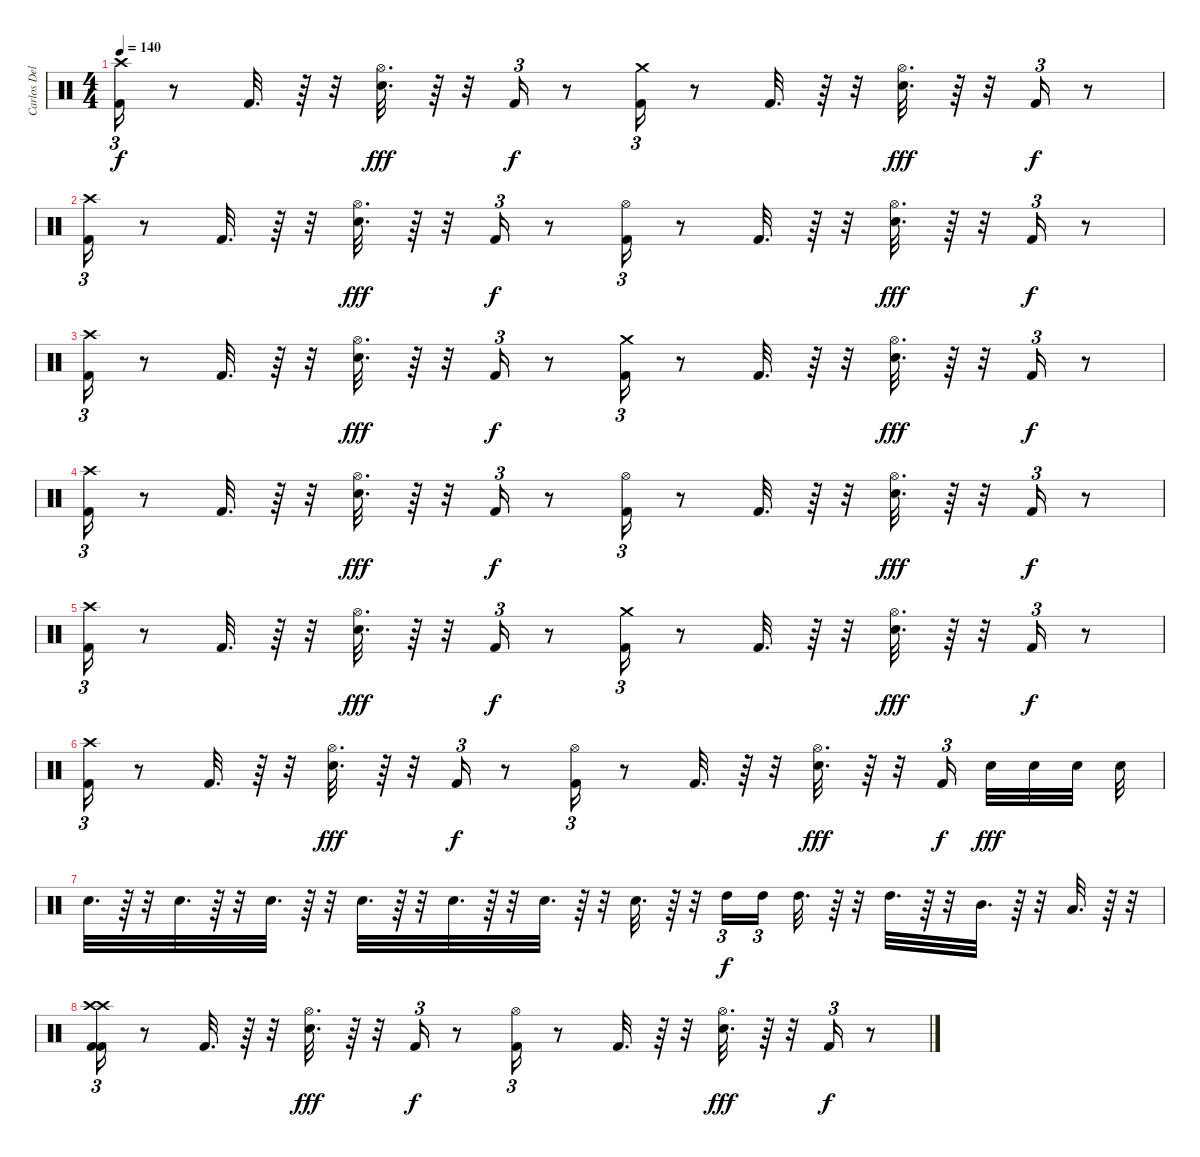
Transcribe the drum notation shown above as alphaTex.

\track ("Carlos Delgado" "Carlos Del") {instrument percussion}
\staff {score}
\articulation defaults
\ts (4 4)
\tempo 140
\clef neutral
\ks c
("Crash high (hit)" "Kick (hit) 2").16{tu (3 2) dy f} r.8 "Kick (hit) 2".32{d} r.64 r.32 ("Hi-Hat (open)" "Electric Snare (hit)").32{d dy fff} r.64 r.32 "Kick (hit) 2".16{tu (3 2) dy f} r.8 ("Kick (hit) 2" "Crash medium (hit)").16{tu (3 2)} r.8 "Kick (hit) 2".32{d} r.64 r.32 ("Hi-Hat (open)" "Electric Snare (hit)").32{d dy fff} r.64 r.32 "Kick (hit) 2".16{tu (3 2) dy f} r.8 |
("Kick (hit) 2" "Crash high (hit)").16{tu (3 2)} r.8 "Kick (hit) 2".32{d} r.64 r.32 ("Electric Snare (hit)" "Hi-Hat (open)").32{d dy fff} r.64 r.32 "Kick (hit) 2".16{tu (3 2) dy f} r.8 ("Kick (hit) 2" "Hi-Hat (open)").16{tu (3 2)} r.8 "Kick (hit) 2".32{d} r.64 r.32 ("Hi-Hat (open)" "Electric Snare (hit)").32{d dy fff} r.64 r.32 "Kick (hit) 2".16{tu (3 2) dy f} r.8 |
("Kick (hit) 2" "Crash high (hit)").16{tu (3 2)} r.8 "Kick (hit) 2".32{d} r.64 r.32 ("Electric Snare (hit)" "Hi-Hat (open)").32{d dy fff} r.64 r.32 "Kick (hit) 2".16{tu (3 2) dy f} r.8 ("Kick (hit) 2" "Crash medium (hit)").16{tu (3 2)} r.8 "Kick (hit) 2".32{d} r.64 r.32 ("Hi-Hat (open)" "Electric Snare (hit)").32{d dy fff} r.64 r.32 "Kick (hit) 2".16{tu (3 2) dy f} r.8 |
("Kick (hit) 2" "Crash high (hit)").16{tu (3 2)} r.8 "Kick (hit) 2".32{d} r.64 r.32 ("Electric Snare (hit)" "Hi-Hat (open)").32{d dy fff} r.64 r.32 "Kick (hit) 2".16{tu (3 2) dy f} r.8 ("Hi-Hat (open)" "Kick (hit) 2").16{tu (3 2)} r.8 "Kick (hit) 2".32{d} r.64 r.32 ("Hi-Hat (open)" "Electric Snare (hit)").32{d dy fff} r.64 r.32 "Kick (hit) 2".16{tu (3 2) dy f} r.8 |
("Crash high (hit)" "Kick (hit) 2").16{tu (3 2)} r.8 "Kick (hit) 2".32{d} r.64 r.32 ("Electric Snare (hit)" "Hi-Hat (open)").32{d dy fff} r.64 r.32 "Kick (hit) 2".16{tu (3 2) dy f} r.8 ("Crash medium (hit)" "Kick (hit) 2").16{tu (3 2)} r.8 "Kick (hit) 2".32{d} r.64 r.32 ("Hi-Hat (open)" "Electric Snare (hit)").32{d dy fff} r.64 r.32 "Kick (hit) 2".16{tu (3 2) dy f} r.8 |
("Crash high (hit)" "Kick (hit) 2").16{tu (3 2)} r.8 "Kick (hit) 2".32{d} r.64 r.32 ("Electric Snare (hit)" "Hi-Hat (open)").32{d dy fff} r.64 r.32 "Kick (hit) 2".16{tu (3 2) dy f} r.8 ("Hi-Hat (open)" "Kick (hit) 2").16{tu (3 2)} r.8 "Kick (hit) 2".32{d} r.64 r.32 ("Hi-Hat (open)" "Electric Snare (hit)").32{d dy fff} r.64 r.32 "Kick (hit) 2".16{tu (3 2) dy f beam splitsecondary} "Electric Snare (hit)".32{dy fff} "Electric Snare (hit)".32 "Electric Snare (hit)".32 "Electric Snare (hit)".32 |
"Electric Snare (hit)".32{d} r.64 r.32 "Electric Snare (hit)".32{d} r.64 r.32 "Electric Snare (hit)".32{d} r.64 r.32 "Electric Snare (hit)".32{d} r.64 r.32 "Electric Snare (hit)".32{d} r.64 r.32 "Electric Snare (hit)".32{d} r.64 r.32 "Electric Snare (hit)".32{d} r.64 r.32 "High Tom (hit)".16{tu (3 2) dy f} "High Tom (hit)".16{tu (3 2) beam splitsecondary} "High Tom (hit)".32{d} r.64 r.32 "High Tom (hit)".32{d} r.64 r.32 "Mid Tom (hit)".32{d} r.64 r.32 "Low Tom (hit)".32{d} r.64 r.32 |
("Crash high (hit)" "Kick (hit) 2" "Crash high (hit)" "Kick (hit) 2").16{tu (3 2)} r.8 "Kick (hit) 2".32{d} r.64 r.32 ("Hi-Hat (open)" "Electric Snare (hit)").32{d dy fff} r.64 r.32 "Kick (hit) 2".16{tu (3 2) dy f} r.8 ("Kick (hit) 2" "Hi-Hat (open)").16{tu (3 2)} r.8 "Kick (hit) 2".32{d} r.64 r.32 ("Hi-Hat (open)" "Electric Snare (hit)").32{d dy fff} r.64 r.32 "Kick (hit) 2".16{tu (3 2) dy f} r.8
